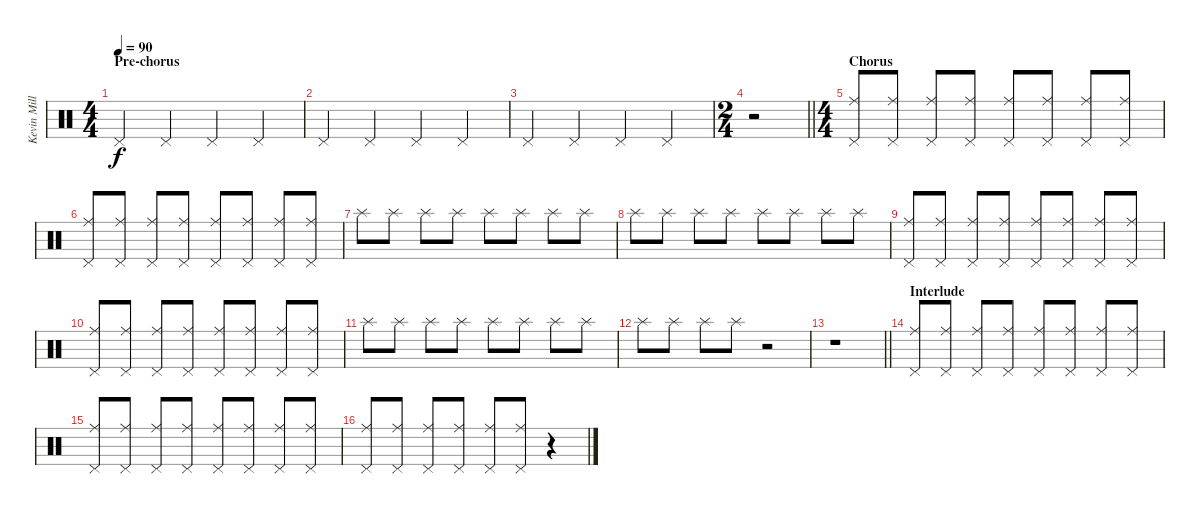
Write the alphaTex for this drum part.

\track ("Kevin Miller (Drums)" "Kevin Mill") {instrument percussion}
\staff {score}
\articulation defaults
\ts (4 4)
\section ("" "Pre-chorus")
\tempo 90
\clef neutral
\ks c "Pedal Hi-Hat (hit)".4{dy f} "Pedal Hi-Hat (hit)".4 "Pedal Hi-Hat (hit)".4 "Pedal Hi-Hat (hit)".4
|
"Pedal Hi-Hat (hit)".4 "Pedal Hi-Hat (hit)".4 "Pedal Hi-Hat (hit)".4 "Pedal Hi-Hat (hit)".4 |
"Pedal Hi-Hat (hit)".4 "Pedal Hi-Hat (hit)".4 "Pedal Hi-Hat (hit)".4 "Pedal Hi-Hat (hit)".4 |
\ts (2 4)
\barLineRight lightlight
r.2 |
\ts (4 4)
\section ("" "Chorus")
("Ride (middle)" "Pedal Hi-Hat (hit)").8 ("Ride (middle)" "Pedal Hi-Hat (hit)").8 ("Ride (middle)" "Pedal Hi-Hat (hit)").8 ("Ride (middle)" "Pedal Hi-Hat (hit)").8 ("Ride (middle)" "Pedal Hi-Hat (hit)").8 ("Ride (middle)" "Pedal Hi-Hat (hit)").8 ("Ride (middle)" "Pedal Hi-Hat (hit)").8 ("Ride (middle)" "Pedal Hi-Hat (hit)").8 |
("Ride (middle)" "Pedal Hi-Hat (hit)").8 ("Ride (middle)" "Pedal Hi-Hat (hit)").8 ("Ride (middle)" "Pedal Hi-Hat (hit)").8 ("Ride (middle)" "Pedal Hi-Hat (hit)").8 ("Ride (middle)" "Pedal Hi-Hat (hit)").8 ("Ride (middle)" "Pedal Hi-Hat (hit)").8 ("Ride (middle)" "Pedal Hi-Hat (hit)").8 ("Ride (middle)" "Pedal Hi-Hat (hit)").8 |
"Splash (hit)".8 "Splash (hit)".8 "Splash (hit)".8 "Splash (hit)".8 "Splash (hit)".8 "Splash (hit)".8 "Splash (hit)".8 "Splash (hit)".8 |
"Splash (hit)".8 "Splash (hit)".8 "Splash (hit)".8 "Splash (hit)".8 "Splash (hit)".8 "Splash (hit)".8 "Splash (hit)".8 "Splash (hit)".8 |
("Ride (middle)" "Pedal Hi-Hat (hit)").8 ("Ride (middle)" "Pedal Hi-Hat (hit)").8 ("Ride (middle)" "Pedal Hi-Hat (hit)").8 ("Ride (middle)" "Pedal Hi-Hat (hit)").8 ("Ride (middle)" "Pedal Hi-Hat (hit)").8 ("Ride (middle)" "Pedal Hi-Hat (hit)").8 ("Ride (middle)" "Pedal Hi-Hat (hit)").8 ("Ride (middle)" "Pedal Hi-Hat (hit)").8 |
("Ride (middle)" "Pedal Hi-Hat (hit)").8 ("Ride (middle)" "Pedal Hi-Hat (hit)").8 ("Ride (middle)" "Pedal Hi-Hat (hit)").8 ("Ride (middle)" "Pedal Hi-Hat (hit)").8 ("Ride (middle)" "Pedal Hi-Hat (hit)").8 ("Ride (middle)" "Pedal Hi-Hat (hit)").8 ("Ride (middle)" "Pedal Hi-Hat (hit)").8 ("Ride (middle)" "Pedal Hi-Hat (hit)").8 |
"Splash (hit)".8 "Splash (hit)".8 "Splash (hit)".8 "Splash (hit)".8 "Splash (hit)".8 "Splash (hit)".8 "Splash (hit)".8 "Splash (hit)".8 |
"Splash (hit)".8 "Splash (hit)".8 "Splash (hit)".8 "Splash (hit)".8 r.2 |
\barLineRight lightlight
r.1 |
\section ("" "Interlude")
("Ride (middle)" "Pedal Hi-Hat (hit)").8 ("Ride (middle)" "Pedal Hi-Hat (hit)").8 ("Ride (middle)" "Pedal Hi-Hat (hit)").8 ("Ride (middle)" "Pedal Hi-Hat (hit)").8 ("Ride (middle)" "Pedal Hi-Hat (hit)").8 ("Ride (middle)" "Pedal Hi-Hat (hit)").8 ("Ride (middle)" "Pedal Hi-Hat (hit)").8 ("Ride (middle)" "Pedal Hi-Hat (hit)").8 |
("Ride (middle)" "Pedal Hi-Hat (hit)").8 ("Ride (middle)" "Pedal Hi-Hat (hit)").8 ("Ride (middle)" "Pedal Hi-Hat (hit)").8 ("Ride (middle)" "Pedal Hi-Hat (hit)").8 ("Ride (middle)" "Pedal Hi-Hat (hit)").8 ("Ride (middle)" "Pedal Hi-Hat (hit)").8 ("Ride (middle)" "Pedal Hi-Hat (hit)").8 ("Ride (middle)" "Pedal Hi-Hat (hit)").8 |
("Ride (middle)" "Pedal Hi-Hat (hit)").8 ("Ride (middle)" "Pedal Hi-Hat (hit)").8 ("Ride (middle)" "Pedal Hi-Hat (hit)").8 ("Ride (middle)" "Pedal Hi-Hat (hit)").8 ("Ride (middle)" "Pedal Hi-Hat (hit)").8 ("Ride (middle)" "Pedal Hi-Hat (hit)").8 r.4
